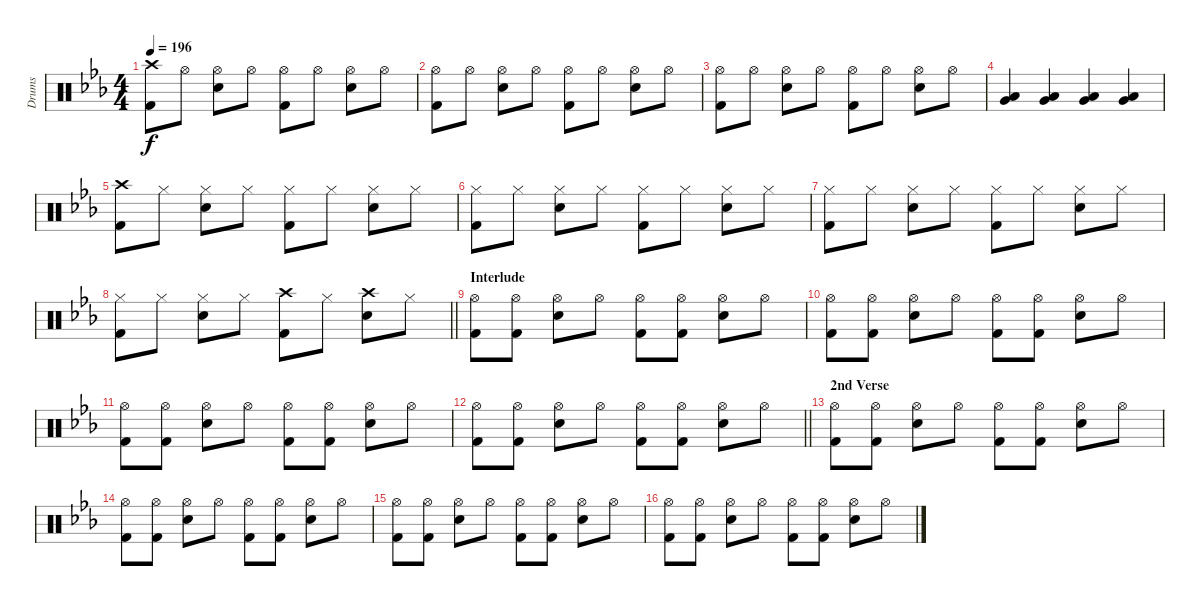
\track ("Drums" "Drums") {instrument percussion}
\staff {score}
\articulation defaults
\ts (4 4)
\tempo 196
\clef neutral
\ks eb
("Crash high (hit)" "Kick (hit) 2").8{dy f} "Hi-Hat (open)".8 ("Hi-Hat (open)" "Snare (hit) 2").8 "Hi-Hat (open)".8 ("Hi-Hat (open)" "Kick (hit) 2").8 "Hi-Hat (open)".8 ("Hi-Hat (open)" "Snare (hit) 2").8 "Hi-Hat (open)".8 |
("Hi-Hat (open)" "Kick (hit) 2").8 "Hi-Hat (open)".8 ("Hi-Hat (open)" "Snare (hit) 2").8 "Hi-Hat (open)".8 ("Hi-Hat (open)" "Kick (hit) 2").8 "Hi-Hat (open)".8 ("Hi-Hat (open)" "Snare (hit) 2").8 "Hi-Hat (open)".8 |
("Hi-Hat (open)" "Kick (hit) 2").8 "Hi-Hat (open)".8 ("Hi-Hat (open)" "Snare (hit) 2").8 "Hi-Hat (open)".8 ("Hi-Hat (open)" "Kick (hit) 2").8 "Hi-Hat (open)".8 ("Hi-Hat (open)" "Snare (hit) 2").8 "Hi-Hat (open)".8 |
("Very Low Tom (hit)" "Low Floor Tom (hit)").4 ("Very Low Tom (hit)" "Low Floor Tom (hit)").4 ("Very Low Tom (hit)" "Low Floor Tom (hit)").4 ("Very Low Tom (hit)" "Low Floor Tom (hit)").4 |
("Crash high (hit)" "Kick (hit) 2").8 "Hi-Hat (closed)".8 ("Hi-Hat (closed)" "Snare (hit) 2").8 "Hi-Hat (closed)".8 ("Hi-Hat (closed)" "Kick (hit) 2").8 "Hi-Hat (closed)".8 ("Hi-Hat (closed)" "Snare (hit) 2").8 "Hi-Hat (closed)".8 |
("Hi-Hat (closed)" "Kick (hit) 2").8 "Hi-Hat (closed)".8 ("Hi-Hat (closed)" "Snare (hit) 2").8 "Hi-Hat (closed)".8 ("Hi-Hat (closed)" "Kick (hit) 2").8 "Hi-Hat (closed)".8 ("Hi-Hat (closed)" "Snare (hit) 2").8 "Hi-Hat (closed)".8 |
("Hi-Hat (closed)" "Kick (hit) 2").8 "Hi-Hat (closed)".8 ("Hi-Hat (closed)" "Snare (hit) 2").8 "Hi-Hat (closed)".8 ("Hi-Hat (closed)" "Kick (hit) 2").8 "Hi-Hat (closed)".8 ("Hi-Hat (closed)" "Snare (hit) 2").8 "Hi-Hat (closed)".8 |
\barLineRight lightlight
("Hi-Hat (closed)" "Kick (hit) 2").8 "Hi-Hat (closed)".8 ("Hi-Hat (closed)" "Snare (hit) 2").8 "Hi-Hat (closed)".8 ("Crash high (hit)" "Kick (hit) 2").8 "Hi-Hat (closed)".8 ("Crash high (hit)" "Snare (hit) 2").8 "Hi-Hat (closed)".8 |
\section ("" "Interlude")
("Hi-Hat (open)" "Kick (hit) 2").8 ("Hi-Hat (open)" "Kick (hit) 2").8 ("Hi-Hat (open)" "Snare (hit) 2").8 "Hi-Hat (open)".8 ("Hi-Hat (open)" "Kick (hit) 2").8 ("Hi-Hat (open)" "Kick (hit) 2").8 ("Hi-Hat (open)" "Snare (hit) 2").8 "Hi-Hat (open)".8 |
("Hi-Hat (open)" "Kick (hit) 2").8 ("Hi-Hat (open)" "Kick (hit) 2").8 ("Hi-Hat (open)" "Snare (hit) 2").8 "Hi-Hat (open)".8 ("Hi-Hat (open)" "Kick (hit) 2").8 ("Hi-Hat (open)" "Kick (hit) 2").8 ("Hi-Hat (open)" "Snare (hit) 2").8 "Hi-Hat (open)".8 |
("Hi-Hat (open)" "Kick (hit) 2").8 ("Hi-Hat (open)" "Kick (hit) 2").8 ("Hi-Hat (open)" "Snare (hit) 2").8 "Hi-Hat (open)".8 ("Hi-Hat (open)" "Kick (hit) 2").8 ("Hi-Hat (open)" "Kick (hit) 2").8 ("Hi-Hat (open)" "Snare (hit) 2").8 "Hi-Hat (open)".8 |
\barLineRight lightlight
("Hi-Hat (open)" "Kick (hit) 2").8 ("Hi-Hat (open)" "Kick (hit) 2").8 ("Hi-Hat (open)" "Snare (hit) 2").8 "Hi-Hat (open)".8 ("Hi-Hat (open)" "Kick (hit) 2").8 ("Hi-Hat (open)" "Kick (hit) 2").8 ("Hi-Hat (open)" "Snare (hit) 2").8 "Hi-Hat (open)".8 |
\section ("" "2nd Verse")
("Hi-Hat (open)" "Kick (hit) 2").8 ("Hi-Hat (open)" "Kick (hit) 2").8 ("Hi-Hat (open)" "Snare (hit) 2").8 "Hi-Hat (open)".8 ("Hi-Hat (open)" "Kick (hit) 2").8 ("Hi-Hat (open)" "Kick (hit) 2").8 ("Hi-Hat (open)" "Snare (hit) 2").8 "Hi-Hat (open)".8 |
("Hi-Hat (open)" "Kick (hit) 2").8 ("Hi-Hat (open)" "Kick (hit) 2").8 ("Hi-Hat (open)" "Snare (hit) 2").8 "Hi-Hat (open)".8 ("Hi-Hat (open)" "Kick (hit) 2").8 ("Hi-Hat (open)" "Kick (hit) 2").8 ("Hi-Hat (open)" "Snare (hit) 2").8 "Hi-Hat (open)".8 |
("Hi-Hat (open)" "Kick (hit) 2").8 ("Hi-Hat (open)" "Kick (hit) 2").8 ("Hi-Hat (open)" "Snare (hit) 2").8 "Hi-Hat (open)".8 ("Hi-Hat (open)" "Kick (hit) 2").8 ("Hi-Hat (open)" "Kick (hit) 2").8 ("Hi-Hat (open)" "Snare (hit) 2").8 "Hi-Hat (open)".8 |
("Hi-Hat (open)" "Kick (hit) 2").8 ("Hi-Hat (open)" "Kick (hit) 2").8 ("Hi-Hat (open)" "Snare (hit) 2").8 "Hi-Hat (open)".8 ("Hi-Hat (open)" "Kick (hit) 2").8 ("Hi-Hat (open)" "Kick (hit) 2").8 ("Hi-Hat (open)" "Snare (hit) 2").8 "Hi-Hat (open)".8
